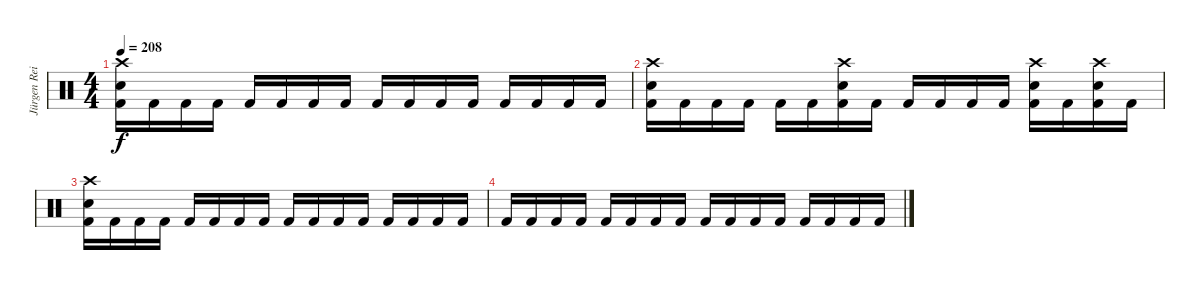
\track ("Jürgen Reil" "Jürgen Rei") {instrument percussion}
\staff {score}
\articulation defaults
\ts (4 4)
\tempo 208
\clef neutral
\ks c
("Crash high (hit)" "Electric Snare (hit)" "Kick (hit) 2").16{dy f} "Kick (hit) 2".16 "Kick (hit) 2".16 "Kick (hit) 2".16 "Kick (hit) 2".16 "Kick (hit) 2".16 "Kick (hit) 2".16 "Kick (hit) 2".16 "Kick (hit) 2".16 "Kick (hit) 2".16 "Kick (hit) 2".16 "Kick (hit) 2".16 "Kick (hit) 2".16 "Kick (hit) 2".16 "Kick (hit) 2".16 "Kick (hit) 2".16 |
("Crash high (hit)" "Electric Snare (hit)" "Kick (hit) 2").16 "Kick (hit) 2".16 "Kick (hit) 2".16 "Kick (hit) 2".16 "Kick (hit) 2".16 "Kick (hit) 2".16 ("Crash high (hit)" "Electric Snare (hit)" "Kick (hit) 2").16 "Kick (hit) 2".16 "Kick (hit) 2".16 "Kick (hit) 2".16 "Kick (hit) 2".16 "Kick (hit) 2".16 ("Crash high (hit)" "Electric Snare (hit)" "Kick (hit) 2").16 "Kick (hit) 2".16 ("Crash high (hit)" "Electric Snare (hit)" "Kick (hit) 2").16 "Kick (hit) 2".16 |
("Crash high (hit)" "Electric Snare (hit)" "Kick (hit) 2").16 "Kick (hit) 2".16 "Kick (hit) 2".16 "Kick (hit) 2".16 "Kick (hit) 2".16 "Kick (hit) 2".16 "Kick (hit) 2".16 "Kick (hit) 2".16 "Kick (hit) 2".16 "Kick (hit) 2".16 "Kick (hit) 2".16 "Kick (hit) 2".16 "Kick (hit) 2".16 "Kick (hit) 2".16 "Kick (hit) 2".16 "Kick (hit) 2".16 |
"Kick (hit) 2".16 "Kick (hit) 2".16 "Kick (hit) 2".16 "Kick (hit) 2".16 "Kick (hit) 2".16 "Kick (hit) 2".16 "Kick (hit) 2".16 "Kick (hit) 2".16 "Kick (hit) 2".16 "Kick (hit) 2".16 "Kick (hit) 2".16 "Kick (hit) 2".16 "Kick (hit) 2".16 "Kick (hit) 2".16 "Kick (hit) 2".16 "Kick (hit) 2".16
